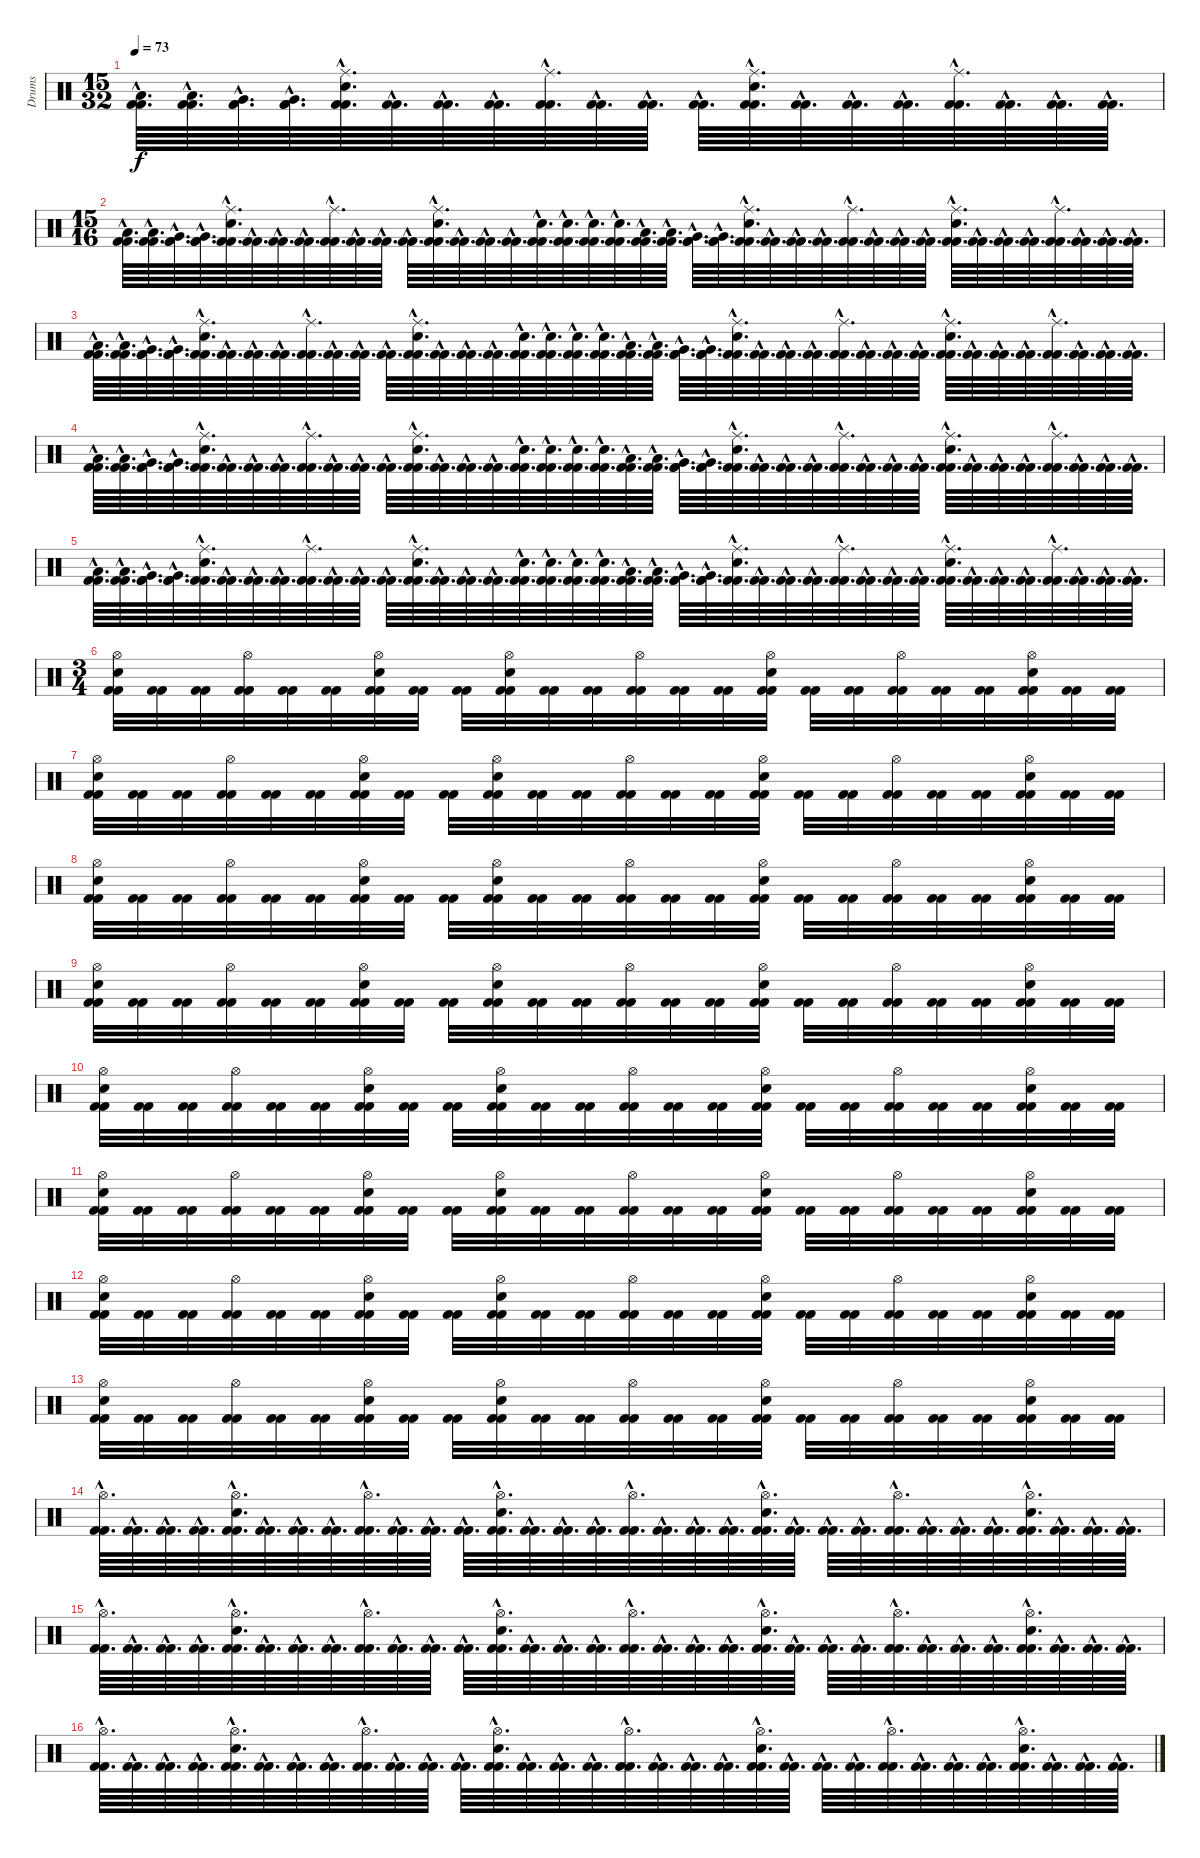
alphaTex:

\track ("Drums" "Drums") {instrument percussion}
\staff {score}
\articulation defaults
\ts (15 32)
\tempo 73
\clef neutral
\ks c
("Kick (hit) 2"{hac} "Kick (hit) 2"{hac} "Low Tom (hit)"{hac}).64{d dy f} ("Kick (hit) 2"{hac} "Kick (hit) 2"{hac} "Low Tom (hit)"{hac}).64{d} ("Kick (hit) 2"{hac} "Kick (hit) 2"{hac} "Very Low Tom (hit)"{hac}).64{d} ("Kick (hit) 2"{hac} "Kick (hit) 2"{hac} "Very Low Tom (hit)"{hac}).64{d} ("Kick (hit) 2"{hac} "Kick (hit) 2"{hac} "Electric Snare (hit)"{hac} "Ride (middle)"{hac}).64{d} ("Kick (hit) 2"{hac} "Kick (hit) 2"{hac}).64{d} ("Kick (hit) 2"{hac} "Kick (hit) 2"{hac}).64{d} ("Kick (hit) 2"{hac} "Kick (hit) 2"{hac}).64{d} ("Kick (hit) 2"{hac} "Kick (hit) 2"{hac} "Ride (middle)"{hac}).64{d} ("Kick (hit) 2"{hac} "Kick (hit) 2"{hac}).64{d} ("Kick (hit) 2"{hac} "Kick (hit) 2"{hac}).64{d} ("Kick (hit) 2"{hac} "Kick (hit) 2"{hac}).64{d} ("Kick (hit) 2"{hac} "Kick (hit) 2"{hac} "Electric Snare (hit)"{hac} "Ride (middle)"{hac}).64{d} ("Kick (hit) 2"{hac} "Kick (hit) 2"{hac}).64{d} ("Kick (hit) 2"{hac} "Kick (hit) 2"{hac}).64{d} ("Kick (hit) 2"{hac} "Kick (hit) 2"{hac}).64{d} ("Kick (hit) 2"{hac} "Kick (hit) 2"{hac} "Ride (middle)"{hac}).64{d} ("Kick (hit) 2"{hac} "Kick (hit) 2"{hac}).64{d} ("Kick (hit) 2"{hac} "Kick (hit) 2"{hac}).64{d} ("Kick (hit) 2"{hac} "Kick (hit) 2"{hac}).64{d} |
\ts (15 16)
("Kick (hit) 2"{hac} "Kick (hit) 2"{hac} "Low Tom (hit)"{hac}).64{d} ("Kick (hit) 2"{hac} "Kick (hit) 2"{hac} "Low Tom (hit)"{hac}).64{d} ("Kick (hit) 2"{hac} "Kick (hit) 2"{hac} "Very Low Tom (hit)"{hac}).64{d} ("Kick (hit) 2"{hac} "Kick (hit) 2"{hac} "Very Low Tom (hit)"{hac}).64{d} ("Kick (hit) 2"{hac} "Kick (hit) 2"{hac} "Electric Snare (hit)"{hac} "Ride (middle)"{hac}).64{d} ("Kick (hit) 2"{hac} "Kick (hit) 2"{hac}).64{d} ("Kick (hit) 2"{hac} "Kick (hit) 2"{hac}).64{d} ("Kick (hit) 2"{hac} "Kick (hit) 2"{hac}).64{d} ("Kick (hit) 2"{hac} "Kick (hit) 2"{hac} "Ride (middle)"{hac}).64{d} ("Kick (hit) 2"{hac} "Kick (hit) 2"{hac}).64{d} ("Kick (hit) 2"{hac} "Kick (hit) 2"{hac}).64{d} ("Kick (hit) 2"{hac} "Kick (hit) 2"{hac}).64{d} ("Kick (hit) 2"{hac} "Kick (hit) 2"{hac} "Electric Snare (hit)"{hac} "Ride (middle)"{hac}).64{d} ("Kick (hit) 2"{hac} "Kick (hit) 2"{hac}).64{d} ("Kick (hit) 2"{hac} "Kick (hit) 2"{hac}).64{d} ("Kick (hit) 2"{hac} "Kick (hit) 2"{hac}).64{d} ("Kick (hit) 2"{hac} "Kick (hit) 2"{hac} "Electric Snare (hit)"{hac}).64{d} ("Kick (hit) 2"{hac} "Kick (hit) 2"{hac} "Electric Snare (hit)"{hac}).64{d} ("Kick (hit) 2"{hac} "Kick (hit) 2"{hac} "Electric Snare (hit)"{hac}).64{d} ("Kick (hit) 2"{hac} "Kick (hit) 2"{hac} "Electric Snare (hit)"{hac}).64{d} ("Kick (hit) 2"{hac} "Kick (hit) 2"{hac} "Low Tom (hit)"{hac}).64{d} ("Kick (hit) 2"{hac} "Kick (hit) 2"{hac} "Low Tom (hit)"{hac}).64{d} ("Kick (hit) 2"{hac} "Kick (hit) 2"{hac} "Very Low Tom (hit)"{hac}).64{d} ("Kick (hit) 2"{hac} "Kick (hit) 2"{hac} "Very Low Tom (hit)"{hac}).64{d} ("Kick (hit) 2"{hac} "Kick (hit) 2"{hac} "Electric Snare (hit)"{hac} "Ride (middle)"{hac}).64{d} ("Kick (hit) 2"{hac} "Kick (hit) 2"{hac}).64{d} ("Kick (hit) 2"{hac} "Kick (hit) 2"{hac}).64{d} ("Kick (hit) 2"{hac} "Kick (hit) 2"{hac}).64{d} ("Kick (hit) 2"{hac} "Kick (hit) 2"{hac} "Ride (middle)"{hac}).64{d} ("Kick (hit) 2"{hac} "Kick (hit) 2"{hac}).64{d} ("Kick (hit) 2"{hac} "Kick (hit) 2"{hac}).64{d} ("Kick (hit) 2"{hac} "Kick (hit) 2"{hac}).64{d} ("Kick (hit) 2"{hac} "Kick (hit) 2"{hac} "Electric Snare (hit)"{hac} "Ride (middle)"{hac}).64{d} ("Kick (hit) 2"{hac} "Kick (hit) 2"{hac}).64{d} ("Kick (hit) 2"{hac} "Kick (hit) 2"{hac}).64{d} ("Kick (hit) 2"{hac} "Kick (hit) 2"{hac}).64{d} ("Kick (hit) 2"{hac} "Kick (hit) 2"{hac} "Ride (middle)"{hac}).64{d} ("Kick (hit) 2"{hac} "Kick (hit) 2"{hac}).64{d} ("Kick (hit) 2"{hac} "Kick (hit) 2"{hac}).64{d} ("Kick (hit) 2"{hac} "Kick (hit) 2"{hac}).64{d} |
("Kick (hit) 2"{hac} "Kick (hit) 2"{hac} "Low Tom (hit)"{hac}).64{d} ("Kick (hit) 2"{hac} "Kick (hit) 2"{hac} "Low Tom (hit)"{hac}).64{d} ("Kick (hit) 2"{hac} "Kick (hit) 2"{hac} "Very Low Tom (hit)"{hac}).64{d} ("Kick (hit) 2"{hac} "Kick (hit) 2"{hac} "Very Low Tom (hit)"{hac}).64{d} ("Kick (hit) 2"{hac} "Kick (hit) 2"{hac} "Electric Snare (hit)"{hac} "Ride (middle)"{hac}).64{d} ("Kick (hit) 2"{hac} "Kick (hit) 2"{hac}).64{d} ("Kick (hit) 2"{hac} "Kick (hit) 2"{hac}).64{d} ("Kick (hit) 2"{hac} "Kick (hit) 2"{hac}).64{d} ("Kick (hit) 2"{hac} "Kick (hit) 2"{hac} "Ride (middle)"{hac}).64{d} ("Kick (hit) 2"{hac} "Kick (hit) 2"{hac}).64{d} ("Kick (hit) 2"{hac} "Kick (hit) 2"{hac}).64{d} ("Kick (hit) 2"{hac} "Kick (hit) 2"{hac}).64{d} ("Kick (hit) 2"{hac} "Kick (hit) 2"{hac} "Electric Snare (hit)"{hac} "Ride (middle)"{hac}).64{d} ("Kick (hit) 2"{hac} "Kick (hit) 2"{hac}).64{d} ("Kick (hit) 2"{hac} "Kick (hit) 2"{hac}).64{d} ("Kick (hit) 2"{hac} "Kick (hit) 2"{hac}).64{d} ("Kick (hit) 2"{hac} "Kick (hit) 2"{hac} "Electric Snare (hit)"{hac}).64{d} ("Kick (hit) 2"{hac} "Kick (hit) 2"{hac} "Electric Snare (hit)"{hac}).64{d} ("Kick (hit) 2"{hac} "Kick (hit) 2"{hac} "Electric Snare (hit)"{hac}).64{d} ("Kick (hit) 2"{hac} "Kick (hit) 2"{hac} "Electric Snare (hit)"{hac}).64{d} ("Kick (hit) 2"{hac} "Kick (hit) 2"{hac} "Low Tom (hit)"{hac}).64{d} ("Kick (hit) 2"{hac} "Kick (hit) 2"{hac} "Low Tom (hit)"{hac}).64{d} ("Kick (hit) 2"{hac} "Kick (hit) 2"{hac} "Very Low Tom (hit)"{hac}).64{d} ("Kick (hit) 2"{hac} "Kick (hit) 2"{hac} "Very Low Tom (hit)"{hac}).64{d} ("Kick (hit) 2"{hac} "Kick (hit) 2"{hac} "Electric Snare (hit)"{hac} "Ride (middle)"{hac}).64{d} ("Kick (hit) 2"{hac} "Kick (hit) 2"{hac}).64{d} ("Kick (hit) 2"{hac} "Kick (hit) 2"{hac}).64{d} ("Kick (hit) 2"{hac} "Kick (hit) 2"{hac}).64{d} ("Kick (hit) 2"{hac} "Kick (hit) 2"{hac} "Ride (middle)"{hac}).64{d} ("Kick (hit) 2"{hac} "Kick (hit) 2"{hac}).64{d} ("Kick (hit) 2"{hac} "Kick (hit) 2"{hac}).64{d} ("Kick (hit) 2"{hac} "Kick (hit) 2"{hac}).64{d} ("Kick (hit) 2"{hac} "Kick (hit) 2"{hac} "Electric Snare (hit)"{hac} "Ride (middle)"{hac}).64{d} ("Kick (hit) 2"{hac} "Kick (hit) 2"{hac}).64{d} ("Kick (hit) 2"{hac} "Kick (hit) 2"{hac}).64{d} ("Kick (hit) 2"{hac} "Kick (hit) 2"{hac}).64{d} ("Kick (hit) 2"{hac} "Kick (hit) 2"{hac} "Ride (middle)"{hac}).64{d} ("Kick (hit) 2"{hac} "Kick (hit) 2"{hac}).64{d} ("Kick (hit) 2"{hac} "Kick (hit) 2"{hac}).64{d} ("Kick (hit) 2"{hac} "Kick (hit) 2"{hac}).64{d} |
("Kick (hit) 2"{hac} "Kick (hit) 2"{hac} "Low Tom (hit)"{hac}).64{d} ("Kick (hit) 2"{hac} "Kick (hit) 2"{hac} "Low Tom (hit)"{hac}).64{d} ("Kick (hit) 2"{hac} "Kick (hit) 2"{hac} "Very Low Tom (hit)"{hac}).64{d} ("Kick (hit) 2"{hac} "Kick (hit) 2"{hac} "Very Low Tom (hit)"{hac}).64{d} ("Kick (hit) 2"{hac} "Kick (hit) 2"{hac} "Electric Snare (hit)"{hac} "Ride (middle)"{hac}).64{d} ("Kick (hit) 2"{hac} "Kick (hit) 2"{hac}).64{d} ("Kick (hit) 2"{hac} "Kick (hit) 2"{hac}).64{d} ("Kick (hit) 2"{hac} "Kick (hit) 2"{hac}).64{d} ("Kick (hit) 2"{hac} "Kick (hit) 2"{hac} "Ride (middle)"{hac}).64{d} ("Kick (hit) 2"{hac} "Kick (hit) 2"{hac}).64{d} ("Kick (hit) 2"{hac} "Kick (hit) 2"{hac}).64{d} ("Kick (hit) 2"{hac} "Kick (hit) 2"{hac}).64{d} ("Kick (hit) 2"{hac} "Kick (hit) 2"{hac} "Electric Snare (hit)"{hac} "Ride (middle)"{hac}).64{d} ("Kick (hit) 2"{hac} "Kick (hit) 2"{hac}).64{d} ("Kick (hit) 2"{hac} "Kick (hit) 2"{hac}).64{d} ("Kick (hit) 2"{hac} "Kick (hit) 2"{hac}).64{d} ("Kick (hit) 2"{hac} "Kick (hit) 2"{hac} "Electric Snare (hit)"{hac}).64{d} ("Kick (hit) 2"{hac} "Kick (hit) 2"{hac} "Electric Snare (hit)"{hac}).64{d} ("Kick (hit) 2"{hac} "Kick (hit) 2"{hac} "Electric Snare (hit)"{hac}).64{d} ("Kick (hit) 2"{hac} "Kick (hit) 2"{hac} "Electric Snare (hit)"{hac}).64{d} ("Kick (hit) 2"{hac} "Kick (hit) 2"{hac} "Low Tom (hit)"{hac}).64{d} ("Kick (hit) 2"{hac} "Kick (hit) 2"{hac} "Low Tom (hit)"{hac}).64{d} ("Kick (hit) 2"{hac} "Kick (hit) 2"{hac} "Very Low Tom (hit)"{hac}).64{d} ("Kick (hit) 2"{hac} "Kick (hit) 2"{hac} "Very Low Tom (hit)"{hac}).64{d} ("Kick (hit) 2"{hac} "Kick (hit) 2"{hac} "Electric Snare (hit)"{hac} "Ride (middle)"{hac}).64{d} ("Kick (hit) 2"{hac} "Kick (hit) 2"{hac}).64{d} ("Kick (hit) 2"{hac} "Kick (hit) 2"{hac}).64{d} ("Kick (hit) 2"{hac} "Kick (hit) 2"{hac}).64{d} ("Kick (hit) 2"{hac} "Kick (hit) 2"{hac} "Ride (middle)"{hac}).64{d} ("Kick (hit) 2"{hac} "Kick (hit) 2"{hac}).64{d} ("Kick (hit) 2"{hac} "Kick (hit) 2"{hac}).64{d} ("Kick (hit) 2"{hac} "Kick (hit) 2"{hac}).64{d} ("Kick (hit) 2"{hac} "Kick (hit) 2"{hac} "Electric Snare (hit)"{hac} "Ride (middle)"{hac}).64{d} ("Kick (hit) 2"{hac} "Kick (hit) 2"{hac}).64{d} ("Kick (hit) 2"{hac} "Kick (hit) 2"{hac}).64{d} ("Kick (hit) 2"{hac} "Kick (hit) 2"{hac}).64{d} ("Kick (hit) 2"{hac} "Kick (hit) 2"{hac} "Ride (middle)"{hac}).64{d} ("Kick (hit) 2"{hac} "Kick (hit) 2"{hac}).64{d} ("Kick (hit) 2"{hac} "Kick (hit) 2"{hac}).64{d} ("Kick (hit) 2"{hac} "Kick (hit) 2"{hac}).64{d} |
("Kick (hit) 2"{hac} "Kick (hit) 2"{hac} "Low Tom (hit)"{hac}).64{d} ("Kick (hit) 2"{hac} "Kick (hit) 2"{hac} "Low Tom (hit)"{hac}).64{d} ("Kick (hit) 2"{hac} "Kick (hit) 2"{hac} "Very Low Tom (hit)"{hac}).64{d} ("Kick (hit) 2"{hac} "Kick (hit) 2"{hac} "Very Low Tom (hit)"{hac}).64{d} ("Kick (hit) 2"{hac} "Kick (hit) 2"{hac} "Electric Snare (hit)"{hac} "Ride (middle)"{hac}).64{d} ("Kick (hit) 2"{hac} "Kick (hit) 2"{hac}).64{d} ("Kick (hit) 2"{hac} "Kick (hit) 2"{hac}).64{d} ("Kick (hit) 2"{hac} "Kick (hit) 2"{hac}).64{d} ("Kick (hit) 2"{hac} "Kick (hit) 2"{hac} "Ride (middle)"{hac}).64{d} ("Kick (hit) 2"{hac} "Kick (hit) 2"{hac}).64{d} ("Kick (hit) 2"{hac} "Kick (hit) 2"{hac}).64{d} ("Kick (hit) 2"{hac} "Kick (hit) 2"{hac}).64{d} ("Kick (hit) 2"{hac} "Kick (hit) 2"{hac} "Electric Snare (hit)"{hac} "Ride (middle)"{hac}).64{d} ("Kick (hit) 2"{hac} "Kick (hit) 2"{hac}).64{d} ("Kick (hit) 2"{hac} "Kick (hit) 2"{hac}).64{d} ("Kick (hit) 2"{hac} "Kick (hit) 2"{hac}).64{d} ("Kick (hit) 2"{hac} "Kick (hit) 2"{hac} "Electric Snare (hit)"{hac}).64{d} ("Kick (hit) 2"{hac} "Kick (hit) 2"{hac} "Electric Snare (hit)"{hac}).64{d} ("Kick (hit) 2"{hac} "Kick (hit) 2"{hac} "Electric Snare (hit)"{hac}).64{d} ("Kick (hit) 2"{hac} "Kick (hit) 2"{hac} "Electric Snare (hit)"{hac}).64{d} ("Kick (hit) 2"{hac} "Kick (hit) 2"{hac} "Low Tom (hit)"{hac}).64{d} ("Kick (hit) 2"{hac} "Kick (hit) 2"{hac} "Low Tom (hit)"{hac}).64{d} ("Kick (hit) 2"{hac} "Kick (hit) 2"{hac} "Very Low Tom (hit)"{hac}).64{d} ("Kick (hit) 2"{hac} "Kick (hit) 2"{hac} "Very Low Tom (hit)"{hac}).64{d} ("Kick (hit) 2"{hac} "Kick (hit) 2"{hac} "Electric Snare (hit)"{hac} "Ride (middle)"{hac}).64{d} ("Kick (hit) 2"{hac} "Kick (hit) 2"{hac}).64{d} ("Kick (hit) 2"{hac} "Kick (hit) 2"{hac}).64{d} ("Kick (hit) 2"{hac} "Kick (hit) 2"{hac}).64{d} ("Kick (hit) 2"{hac} "Kick (hit) 2"{hac} "Ride (middle)"{hac}).64{d} ("Kick (hit) 2"{hac} "Kick (hit) 2"{hac}).64{d} ("Kick (hit) 2"{hac} "Kick (hit) 2"{hac}).64{d} ("Kick (hit) 2"{hac} "Kick (hit) 2"{hac}).64{d} ("Kick (hit) 2"{hac} "Kick (hit) 2"{hac} "Electric Snare (hit)"{hac} "Ride (middle)"{hac}).64{d} ("Kick (hit) 2"{hac} "Kick (hit) 2"{hac}).64{d} ("Kick (hit) 2"{hac} "Kick (hit) 2"{hac}).64{d} ("Kick (hit) 2"{hac} "Kick (hit) 2"{hac}).64{d} ("Kick (hit) 2"{hac} "Kick (hit) 2"{hac} "Ride (middle)"{hac}).64{d} ("Kick (hit) 2"{hac} "Kick (hit) 2"{hac}).64{d} ("Kick (hit) 2"{hac} "Kick (hit) 2"{hac}).64{d} ("Kick (hit) 2"{hac} "Kick (hit) 2"{hac}).64{d} |
\ts (3 4)
("Kick (hit) 2" "Kick (hit) 2" "Electric Snare (hit)" "Hi-Hat (open)").32 ("Kick (hit) 2" "Kick (hit) 2").32 ("Kick (hit) 2" "Kick (hit) 2").32 ("Kick (hit) 2" "Kick (hit) 2" "Hi-Hat (open)").32 ("Kick (hit) 2" "Kick (hit) 2").32 ("Kick (hit) 2" "Kick (hit) 2").32 ("Kick (hit) 2" "Kick (hit) 2" "Electric Snare (hit)" "Hi-Hat (open)").32 ("Kick (hit) 2" "Kick (hit) 2").32 ("Kick (hit) 2" "Kick (hit) 2").32 ("Kick (hit) 2" "Kick (hit) 2" "Electric Snare (hit)" "Hi-Hat (open)").32 ("Kick (hit) 2" "Kick (hit) 2").32 ("Kick (hit) 2" "Kick (hit) 2").32 ("Kick (hit) 2" "Kick (hit) 2" "Hi-Hat (open)").32 ("Kick (hit) 2" "Kick (hit) 2").32 ("Kick (hit) 2" "Kick (hit) 2").32 ("Kick (hit) 2" "Kick (hit) 2" "Electric Snare (hit)" "Hi-Hat (open)").32 ("Kick (hit) 2" "Kick (hit) 2").32 ("Kick (hit) 2" "Kick (hit) 2").32 ("Kick (hit) 2" "Kick (hit) 2" "Hi-Hat (open)").32 ("Kick (hit) 2" "Kick (hit) 2").32 ("Kick (hit) 2" "Kick (hit) 2").32 ("Kick (hit) 2" "Kick (hit) 2" "Electric Snare (hit)" "Hi-Hat (open)").32 ("Kick (hit) 2" "Kick (hit) 2").32 ("Kick (hit) 2" "Kick (hit) 2").32 |
("Kick (hit) 2" "Kick (hit) 2" "Electric Snare (hit)" "Hi-Hat (open)").32 ("Kick (hit) 2" "Kick (hit) 2").32 ("Kick (hit) 2" "Kick (hit) 2").32 ("Kick (hit) 2" "Kick (hit) 2" "Hi-Hat (open)").32 ("Kick (hit) 2" "Kick (hit) 2").32 ("Kick (hit) 2" "Kick (hit) 2").32 ("Kick (hit) 2" "Kick (hit) 2" "Electric Snare (hit)" "Hi-Hat (open)").32 ("Kick (hit) 2" "Kick (hit) 2").32 ("Kick (hit) 2" "Kick (hit) 2").32 ("Kick (hit) 2" "Kick (hit) 2" "Electric Snare (hit)" "Hi-Hat (open)").32 ("Kick (hit) 2" "Kick (hit) 2").32 ("Kick (hit) 2" "Kick (hit) 2").32 ("Kick (hit) 2" "Kick (hit) 2" "Hi-Hat (open)").32 ("Kick (hit) 2" "Kick (hit) 2").32 ("Kick (hit) 2" "Kick (hit) 2").32 ("Kick (hit) 2" "Kick (hit) 2" "Electric Snare (hit)" "Hi-Hat (open)").32 ("Kick (hit) 2" "Kick (hit) 2").32 ("Kick (hit) 2" "Kick (hit) 2").32 ("Kick (hit) 2" "Kick (hit) 2" "Hi-Hat (open)").32 ("Kick (hit) 2" "Kick (hit) 2").32 ("Kick (hit) 2" "Kick (hit) 2").32 ("Kick (hit) 2" "Kick (hit) 2" "Electric Snare (hit)" "Hi-Hat (open)").32 ("Kick (hit) 2" "Kick (hit) 2").32 ("Kick (hit) 2" "Kick (hit) 2").32 |
("Kick (hit) 2" "Kick (hit) 2" "Electric Snare (hit)" "Hi-Hat (open)").32 ("Kick (hit) 2" "Kick (hit) 2").32 ("Kick (hit) 2" "Kick (hit) 2").32 ("Kick (hit) 2" "Kick (hit) 2" "Hi-Hat (open)").32 ("Kick (hit) 2" "Kick (hit) 2").32 ("Kick (hit) 2" "Kick (hit) 2").32 ("Kick (hit) 2" "Kick (hit) 2" "Electric Snare (hit)" "Hi-Hat (open)").32 ("Kick (hit) 2" "Kick (hit) 2").32 ("Kick (hit) 2" "Kick (hit) 2").32 ("Kick (hit) 2" "Kick (hit) 2" "Electric Snare (hit)" "Hi-Hat (open)").32 ("Kick (hit) 2" "Kick (hit) 2").32 ("Kick (hit) 2" "Kick (hit) 2").32 ("Kick (hit) 2" "Kick (hit) 2" "Hi-Hat (open)").32 ("Kick (hit) 2" "Kick (hit) 2").32 ("Kick (hit) 2" "Kick (hit) 2").32 ("Kick (hit) 2" "Kick (hit) 2" "Electric Snare (hit)" "Hi-Hat (open)").32 ("Kick (hit) 2" "Kick (hit) 2").32 ("Kick (hit) 2" "Kick (hit) 2").32 ("Kick (hit) 2" "Kick (hit) 2" "Hi-Hat (open)").32 ("Kick (hit) 2" "Kick (hit) 2").32 ("Kick (hit) 2" "Kick (hit) 2").32 ("Kick (hit) 2" "Kick (hit) 2" "Electric Snare (hit)" "Hi-Hat (open)").32 ("Kick (hit) 2" "Kick (hit) 2").32 ("Kick (hit) 2" "Kick (hit) 2").32 |
("Kick (hit) 2" "Kick (hit) 2" "Electric Snare (hit)" "Hi-Hat (open)").32 ("Kick (hit) 2" "Kick (hit) 2").32 ("Kick (hit) 2" "Kick (hit) 2").32 ("Kick (hit) 2" "Kick (hit) 2" "Hi-Hat (open)").32 ("Kick (hit) 2" "Kick (hit) 2").32 ("Kick (hit) 2" "Kick (hit) 2").32 ("Kick (hit) 2" "Kick (hit) 2" "Electric Snare (hit)" "Hi-Hat (open)").32 ("Kick (hit) 2" "Kick (hit) 2").32 ("Kick (hit) 2" "Kick (hit) 2").32 ("Kick (hit) 2" "Kick (hit) 2" "Electric Snare (hit)" "Hi-Hat (open)").32 ("Kick (hit) 2" "Kick (hit) 2").32 ("Kick (hit) 2" "Kick (hit) 2").32 ("Kick (hit) 2" "Kick (hit) 2" "Hi-Hat (open)").32 ("Kick (hit) 2" "Kick (hit) 2").32 ("Kick (hit) 2" "Kick (hit) 2").32 ("Kick (hit) 2" "Kick (hit) 2" "Electric Snare (hit)" "Hi-Hat (open)").32 ("Kick (hit) 2" "Kick (hit) 2").32 ("Kick (hit) 2" "Kick (hit) 2").32 ("Kick (hit) 2" "Kick (hit) 2" "Hi-Hat (open)").32 ("Kick (hit) 2" "Kick (hit) 2").32 ("Kick (hit) 2" "Kick (hit) 2").32 ("Kick (hit) 2" "Kick (hit) 2" "Electric Snare (hit)" "Hi-Hat (open)").32 ("Kick (hit) 2" "Kick (hit) 2").32 ("Kick (hit) 2" "Kick (hit) 2").32 |
("Kick (hit) 2" "Kick (hit) 2" "Electric Snare (hit)" "Hi-Hat (open)").32 ("Kick (hit) 2" "Kick (hit) 2").32 ("Kick (hit) 2" "Kick (hit) 2").32 ("Kick (hit) 2" "Kick (hit) 2" "Hi-Hat (open)").32 ("Kick (hit) 2" "Kick (hit) 2").32 ("Kick (hit) 2" "Kick (hit) 2").32 ("Kick (hit) 2" "Kick (hit) 2" "Electric Snare (hit)" "Hi-Hat (open)").32 ("Kick (hit) 2" "Kick (hit) 2").32 ("Kick (hit) 2" "Kick (hit) 2").32 ("Kick (hit) 2" "Kick (hit) 2" "Electric Snare (hit)" "Hi-Hat (open)").32 ("Kick (hit) 2" "Kick (hit) 2").32 ("Kick (hit) 2" "Kick (hit) 2").32 ("Kick (hit) 2" "Kick (hit) 2" "Hi-Hat (open)").32 ("Kick (hit) 2" "Kick (hit) 2").32 ("Kick (hit) 2" "Kick (hit) 2").32 ("Kick (hit) 2" "Kick (hit) 2" "Electric Snare (hit)" "Hi-Hat (open)").32 ("Kick (hit) 2" "Kick (hit) 2").32 ("Kick (hit) 2" "Kick (hit) 2").32 ("Kick (hit) 2" "Kick (hit) 2" "Hi-Hat (open)").32 ("Kick (hit) 2" "Kick (hit) 2").32 ("Kick (hit) 2" "Kick (hit) 2").32 ("Kick (hit) 2" "Kick (hit) 2" "Electric Snare (hit)" "Hi-Hat (open)").32 ("Kick (hit) 2" "Kick (hit) 2").32 ("Kick (hit) 2" "Kick (hit) 2").32 |
("Kick (hit) 2" "Kick (hit) 2" "Electric Snare (hit)" "Hi-Hat (open)").32 ("Kick (hit) 2" "Kick (hit) 2").32 ("Kick (hit) 2" "Kick (hit) 2").32 ("Kick (hit) 2" "Kick (hit) 2" "Hi-Hat (open)").32 ("Kick (hit) 2" "Kick (hit) 2").32 ("Kick (hit) 2" "Kick (hit) 2").32 ("Kick (hit) 2" "Kick (hit) 2" "Electric Snare (hit)" "Hi-Hat (open)").32 ("Kick (hit) 2" "Kick (hit) 2").32 ("Kick (hit) 2" "Kick (hit) 2").32 ("Kick (hit) 2" "Kick (hit) 2" "Electric Snare (hit)" "Hi-Hat (open)").32 ("Kick (hit) 2" "Kick (hit) 2").32 ("Kick (hit) 2" "Kick (hit) 2").32 ("Kick (hit) 2" "Kick (hit) 2" "Hi-Hat (open)").32 ("Kick (hit) 2" "Kick (hit) 2").32 ("Kick (hit) 2" "Kick (hit) 2").32 ("Kick (hit) 2" "Kick (hit) 2" "Electric Snare (hit)" "Hi-Hat (open)").32 ("Kick (hit) 2" "Kick (hit) 2").32 ("Kick (hit) 2" "Kick (hit) 2").32 ("Kick (hit) 2" "Kick (hit) 2" "Hi-Hat (open)").32 ("Kick (hit) 2" "Kick (hit) 2").32 ("Kick (hit) 2" "Kick (hit) 2").32 ("Kick (hit) 2" "Kick (hit) 2" "Electric Snare (hit)" "Hi-Hat (open)").32 ("Kick (hit) 2" "Kick (hit) 2").32 ("Kick (hit) 2" "Kick (hit) 2").32 |
("Kick (hit) 2" "Kick (hit) 2" "Electric Snare (hit)" "Hi-Hat (open)").32 ("Kick (hit) 2" "Kick (hit) 2").32 ("Kick (hit) 2" "Kick (hit) 2").32 ("Kick (hit) 2" "Kick (hit) 2" "Hi-Hat (open)").32 ("Kick (hit) 2" "Kick (hit) 2").32 ("Kick (hit) 2" "Kick (hit) 2").32 ("Kick (hit) 2" "Kick (hit) 2" "Electric Snare (hit)" "Hi-Hat (open)").32 ("Kick (hit) 2" "Kick (hit) 2").32 ("Kick (hit) 2" "Kick (hit) 2").32 ("Kick (hit) 2" "Kick (hit) 2" "Electric Snare (hit)" "Hi-Hat (open)").32 ("Kick (hit) 2" "Kick (hit) 2").32 ("Kick (hit) 2" "Kick (hit) 2").32 ("Kick (hit) 2" "Kick (hit) 2" "Hi-Hat (open)").32 ("Kick (hit) 2" "Kick (hit) 2").32 ("Kick (hit) 2" "Kick (hit) 2").32 ("Kick (hit) 2" "Kick (hit) 2" "Electric Snare (hit)" "Hi-Hat (open)").32 ("Kick (hit) 2" "Kick (hit) 2").32 ("Kick (hit) 2" "Kick (hit) 2").32 ("Kick (hit) 2" "Kick (hit) 2" "Hi-Hat (open)").32 ("Kick (hit) 2" "Kick (hit) 2").32 ("Kick (hit) 2" "Kick (hit) 2").32 ("Kick (hit) 2" "Kick (hit) 2" "Electric Snare (hit)" "Hi-Hat (open)").32 ("Kick (hit) 2" "Kick (hit) 2").32 ("Kick (hit) 2" "Kick (hit) 2").32 |
("Kick (hit) 2" "Kick (hit) 2" "Electric Snare (hit)" "Hi-Hat (open)").32 ("Kick (hit) 2" "Kick (hit) 2").32 ("Kick (hit) 2" "Kick (hit) 2").32 ("Kick (hit) 2" "Kick (hit) 2" "Hi-Hat (open)").32 ("Kick (hit) 2" "Kick (hit) 2").32 ("Kick (hit) 2" "Kick (hit) 2").32 ("Kick (hit) 2" "Kick (hit) 2" "Electric Snare (hit)" "Hi-Hat (open)").32 ("Kick (hit) 2" "Kick (hit) 2").32 ("Kick (hit) 2" "Kick (hit) 2").32 ("Kick (hit) 2" "Kick (hit) 2" "Electric Snare (hit)" "Hi-Hat (open)").32 ("Kick (hit) 2" "Kick (hit) 2").32 ("Kick (hit) 2" "Kick (hit) 2").32 ("Kick (hit) 2" "Kick (hit) 2" "Hi-Hat (open)").32 ("Kick (hit) 2" "Kick (hit) 2").32 ("Kick (hit) 2" "Kick (hit) 2").32 ("Kick (hit) 2" "Kick (hit) 2" "Electric Snare (hit)" "Hi-Hat (open)").32 ("Kick (hit) 2" "Kick (hit) 2").32 ("Kick (hit) 2" "Kick (hit) 2").32 ("Kick (hit) 2" "Kick (hit) 2" "Hi-Hat (open)").32 ("Kick (hit) 2" "Kick (hit) 2").32 ("Kick (hit) 2" "Kick (hit) 2").32 ("Kick (hit) 2" "Kick (hit) 2" "Electric Snare (hit)" "Hi-Hat (open)").32 ("Kick (hit) 2" "Kick (hit) 2").32 ("Kick (hit) 2" "Kick (hit) 2").32 |
("Kick (hit) 2"{hac} "Kick (hit) 2"{hac} "Hi-Hat (open)"{hac}).64{d} ("Kick (hit) 2"{hac} "Kick (hit) 2"{hac}).64{d} ("Kick (hit) 2"{hac} "Kick (hit) 2"{hac}).64{d} ("Kick (hit) 2"{hac} "Kick (hit) 2"{hac}).64{d} ("Kick (hit) 2"{hac} "Kick (hit) 2"{hac} "Electric Snare (hit)"{hac} "Hi-Hat (open)"{hac}).64{d} ("Kick (hit) 2"{hac} "Kick (hit) 2"{hac}).64{d} ("Kick (hit) 2"{hac} "Kick (hit) 2"{hac}).64{d} ("Kick (hit) 2"{hac} "Kick (hit) 2"{hac}).64{d} ("Kick (hit) 2"{hac} "Kick (hit) 2"{hac} "Hi-Hat (open)"{hac}).64{d} ("Kick (hit) 2"{hac} "Kick (hit) 2"{hac}).64{d} ("Kick (hit) 2"{hac} "Kick (hit) 2"{hac}).64{d} ("Kick (hit) 2"{hac} "Kick (hit) 2"{hac}).64{d} ("Kick (hit) 2"{hac} "Kick (hit) 2"{hac} "Electric Snare (hit)"{hac} "Hi-Hat (open)"{hac}).64{d} ("Kick (hit) 2"{hac} "Kick (hit) 2"{hac}).64{d} ("Kick (hit) 2"{hac} "Kick (hit) 2"{hac}).64{d} ("Kick (hit) 2"{hac} "Kick (hit) 2"{hac}).64{d} ("Kick (hit) 2"{hac} "Kick (hit) 2"{hac} "Hi-Hat (open)"{hac}).64{d} ("Kick (hit) 2"{hac} "Kick (hit) 2"{hac}).64{d} ("Kick (hit) 2"{hac} "Kick (hit) 2"{hac}).64{d} ("Kick (hit) 2"{hac} "Kick (hit) 2"{hac}).64{d} ("Kick (hit) 2"{hac} "Kick (hit) 2"{hac} "Electric Snare (hit)"{hac} "Hi-Hat (open)"{hac}).64{d} ("Kick (hit) 2"{hac} "Kick (hit) 2"{hac}).64{d} ("Kick (hit) 2"{hac} "Kick (hit) 2"{hac}).64{d} ("Kick (hit) 2"{hac} "Kick (hit) 2"{hac}).64{d} ("Kick (hit) 2"{hac} "Kick (hit) 2"{hac} "Hi-Hat (open)"{hac}).64{d} ("Kick (hit) 2"{hac} "Kick (hit) 2"{hac}).64{d} ("Kick (hit) 2"{hac} "Kick (hit) 2"{hac}).64{d} ("Kick (hit) 2"{hac} "Kick (hit) 2"{hac}).64{d} ("Kick (hit) 2"{hac} "Kick (hit) 2"{hac} "Electric Snare (hit)"{hac} "Hi-Hat (open)"{hac}).64{d} ("Kick (hit) 2"{hac} "Kick (hit) 2"{hac}).64{d} ("Kick (hit) 2"{hac} "Kick (hit) 2"{hac}).64{d} ("Kick (hit) 2"{hac} "Kick (hit) 2"{hac}).64{d} |
("Kick (hit) 2"{hac} "Kick (hit) 2"{hac} "Hi-Hat (open)"{hac}).64{d} ("Kick (hit) 2"{hac} "Kick (hit) 2"{hac}).64{d} ("Kick (hit) 2"{hac} "Kick (hit) 2"{hac}).64{d} ("Kick (hit) 2"{hac} "Kick (hit) 2"{hac}).64{d} ("Kick (hit) 2"{hac} "Kick (hit) 2"{hac} "Electric Snare (hit)"{hac} "Hi-Hat (open)"{hac}).64{d} ("Kick (hit) 2"{hac} "Kick (hit) 2"{hac}).64{d} ("Kick (hit) 2"{hac} "Kick (hit) 2"{hac}).64{d} ("Kick (hit) 2"{hac} "Kick (hit) 2"{hac}).64{d} ("Kick (hit) 2"{hac} "Kick (hit) 2"{hac} "Hi-Hat (open)"{hac}).64{d} ("Kick (hit) 2"{hac} "Kick (hit) 2"{hac}).64{d} ("Kick (hit) 2"{hac} "Kick (hit) 2"{hac}).64{d} ("Kick (hit) 2"{hac} "Kick (hit) 2"{hac}).64{d} ("Kick (hit) 2"{hac} "Kick (hit) 2"{hac} "Electric Snare (hit)"{hac} "Hi-Hat (open)"{hac}).64{d} ("Kick (hit) 2"{hac} "Kick (hit) 2"{hac}).64{d} ("Kick (hit) 2"{hac} "Kick (hit) 2"{hac}).64{d} ("Kick (hit) 2"{hac} "Kick (hit) 2"{hac}).64{d} ("Kick (hit) 2"{hac} "Kick (hit) 2"{hac} "Hi-Hat (open)"{hac}).64{d} ("Kick (hit) 2"{hac} "Kick (hit) 2"{hac}).64{d} ("Kick (hit) 2"{hac} "Kick (hit) 2"{hac}).64{d} ("Kick (hit) 2"{hac} "Kick (hit) 2"{hac}).64{d} ("Kick (hit) 2"{hac} "Kick (hit) 2"{hac} "Electric Snare (hit)"{hac} "Hi-Hat (open)"{hac}).64{d} ("Kick (hit) 2"{hac} "Kick (hit) 2"{hac}).64{d} ("Kick (hit) 2"{hac} "Kick (hit) 2"{hac}).64{d} ("Kick (hit) 2"{hac} "Kick (hit) 2"{hac}).64{d} ("Kick (hit) 2"{hac} "Kick (hit) 2"{hac} "Hi-Hat (open)"{hac}).64{d} ("Kick (hit) 2"{hac} "Kick (hit) 2"{hac}).64{d} ("Kick (hit) 2"{hac} "Kick (hit) 2"{hac}).64{d} ("Kick (hit) 2"{hac} "Kick (hit) 2"{hac}).64{d} ("Kick (hit) 2"{hac} "Kick (hit) 2"{hac} "Electric Snare (hit)"{hac} "Hi-Hat (open)"{hac}).64{d} ("Kick (hit) 2"{hac} "Kick (hit) 2"{hac}).64{d} ("Kick (hit) 2"{hac} "Kick (hit) 2"{hac}).64{d} ("Kick (hit) 2"{hac} "Kick (hit) 2"{hac}).64{d} |
("Kick (hit) 2"{hac} "Kick (hit) 2"{hac} "Hi-Hat (open)"{hac}).64{d} ("Kick (hit) 2"{hac} "Kick (hit) 2"{hac}).64{d} ("Kick (hit) 2"{hac} "Kick (hit) 2"{hac}).64{d} ("Kick (hit) 2"{hac} "Kick (hit) 2"{hac}).64{d} ("Kick (hit) 2"{hac} "Kick (hit) 2"{hac} "Electric Snare (hit)"{hac} "Hi-Hat (open)"{hac}).64{d} ("Kick (hit) 2"{hac} "Kick (hit) 2"{hac}).64{d} ("Kick (hit) 2"{hac} "Kick (hit) 2"{hac}).64{d} ("Kick (hit) 2"{hac} "Kick (hit) 2"{hac}).64{d} ("Kick (hit) 2"{hac} "Kick (hit) 2"{hac} "Hi-Hat (open)"{hac}).64{d} ("Kick (hit) 2"{hac} "Kick (hit) 2"{hac}).64{d} ("Kick (hit) 2"{hac} "Kick (hit) 2"{hac}).64{d} ("Kick (hit) 2"{hac} "Kick (hit) 2"{hac}).64{d} ("Kick (hit) 2"{hac} "Kick (hit) 2"{hac} "Electric Snare (hit)"{hac} "Hi-Hat (open)"{hac}).64{d} ("Kick (hit) 2"{hac} "Kick (hit) 2"{hac}).64{d} ("Kick (hit) 2"{hac} "Kick (hit) 2"{hac}).64{d} ("Kick (hit) 2"{hac} "Kick (hit) 2"{hac}).64{d} ("Kick (hit) 2"{hac} "Kick (hit) 2"{hac} "Hi-Hat (open)"{hac}).64{d} ("Kick (hit) 2"{hac} "Kick (hit) 2"{hac}).64{d} ("Kick (hit) 2"{hac} "Kick (hit) 2"{hac}).64{d} ("Kick (hit) 2"{hac} "Kick (hit) 2"{hac}).64{d} ("Kick (hit) 2"{hac} "Kick (hit) 2"{hac} "Electric Snare (hit)"{hac} "Hi-Hat (open)"{hac}).64{d} ("Kick (hit) 2"{hac} "Kick (hit) 2"{hac}).64{d} ("Kick (hit) 2"{hac} "Kick (hit) 2"{hac}).64{d} ("Kick (hit) 2"{hac} "Kick (hit) 2"{hac}).64{d} ("Kick (hit) 2"{hac} "Kick (hit) 2"{hac} "Hi-Hat (open)"{hac}).64{d} ("Kick (hit) 2"{hac} "Kick (hit) 2"{hac}).64{d} ("Kick (hit) 2"{hac} "Kick (hit) 2"{hac}).64{d} ("Kick (hit) 2"{hac} "Kick (hit) 2"{hac}).64{d} ("Kick (hit) 2"{hac} "Kick (hit) 2"{hac} "Electric Snare (hit)"{hac} "Hi-Hat (open)"{hac}).64{d} ("Kick (hit) 2"{hac} "Kick (hit) 2"{hac}).64{d} ("Kick (hit) 2"{hac} "Kick (hit) 2"{hac}).64{d} ("Kick (hit) 2"{hac} "Kick (hit) 2"{hac}).64{d}
